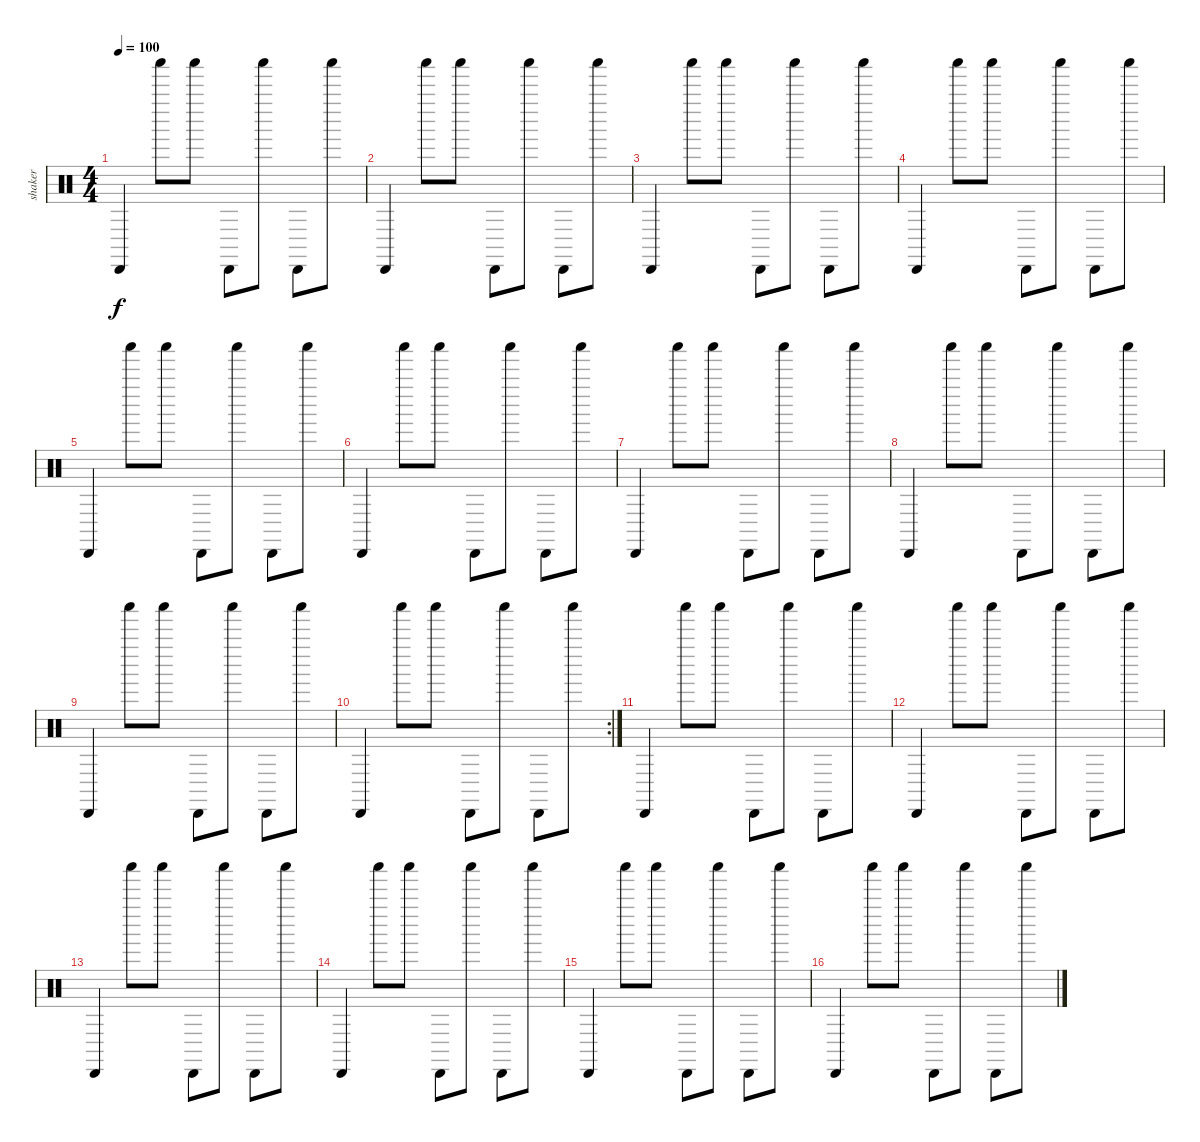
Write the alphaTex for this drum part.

\track ("shaker" "shaker") {instrument percussion}
\staff {score}
\articulation defaults
\ts (4 4)
\tempo 100
\clef neutral
\ks c "Cabasa (hit)".4{dy f} "Shaker (hit)".8 "Shaker (hit)".8 "Cabasa (hit)".8 "Shaker (hit)".8 "Cabasa (hit)".8 "Shaker (hit)".8
|
"Cabasa (hit)".4 "Shaker (hit)".8 "Shaker (hit)".8 "Cabasa (hit)".8 "Shaker (hit)".8 "Cabasa (hit)".8 "Shaker (hit)".8 |
"Cabasa (hit)".4 "Shaker (hit)".8 "Shaker (hit)".8 "Cabasa (hit)".8 "Shaker (hit)".8 "Cabasa (hit)".8 "Shaker (hit)".8 |
"Cabasa (hit)".4 "Shaker (hit)".8 "Shaker (hit)".8 "Cabasa (hit)".8 "Shaker (hit)".8 "Cabasa (hit)".8 "Shaker (hit)".8 |
"Cabasa (hit)".4 "Shaker (hit)".8 "Shaker (hit)".8 "Cabasa (hit)".8 "Shaker (hit)".8 "Cabasa (hit)".8 "Shaker (hit)".8 |
"Cabasa (hit)".4 "Shaker (hit)".8 "Shaker (hit)".8 "Cabasa (hit)".8 "Shaker (hit)".8 "Cabasa (hit)".8 "Shaker (hit)".8 |
"Cabasa (hit)".4 "Shaker (hit)".8 "Shaker (hit)".8 "Cabasa (hit)".8 "Shaker (hit)".8 "Cabasa (hit)".8 "Shaker (hit)".8 |
"Cabasa (hit)".4 "Shaker (hit)".8 "Shaker (hit)".8 "Cabasa (hit)".8 "Shaker (hit)".8 "Cabasa (hit)".8 "Shaker (hit)".8 |
"Cabasa (hit)".4 "Shaker (hit)".8 "Shaker (hit)".8 "Cabasa (hit)".8 "Shaker (hit)".8 "Cabasa (hit)".8 "Shaker (hit)".8 |
\rc 2 "Cabasa (hit)".4 "Shaker (hit)".8 "Shaker (hit)".8 "Cabasa (hit)".8 "Shaker (hit)".8 "Cabasa (hit)".8 "Shaker (hit)".8
|
"Cabasa (hit)".4 "Shaker (hit)".8 "Shaker (hit)".8 "Cabasa (hit)".8 "Shaker (hit)".8 "Cabasa (hit)".8 "Shaker (hit)".8 |
"Cabasa (hit)".4 "Shaker (hit)".8 "Shaker (hit)".8 "Cabasa (hit)".8 "Shaker (hit)".8 "Cabasa (hit)".8 "Shaker (hit)".8 |
"Cabasa (hit)".4 "Shaker (hit)".8 "Shaker (hit)".8 "Cabasa (hit)".8 "Shaker (hit)".8 "Cabasa (hit)".8 "Shaker (hit)".8 |
"Cabasa (hit)".4 "Shaker (hit)".8 "Shaker (hit)".8 "Cabasa (hit)".8 "Shaker (hit)".8 "Cabasa (hit)".8 "Shaker (hit)".8 |
"Cabasa (hit)".4 "Shaker (hit)".8 "Shaker (hit)".8 "Cabasa (hit)".8 "Shaker (hit)".8 "Cabasa (hit)".8 "Shaker (hit)".8 |
"Cabasa (hit)".4 "Shaker (hit)".8 "Shaker (hit)".8 "Cabasa (hit)".8 "Shaker (hit)".8 "Cabasa (hit)".8 "Shaker (hit)".8
